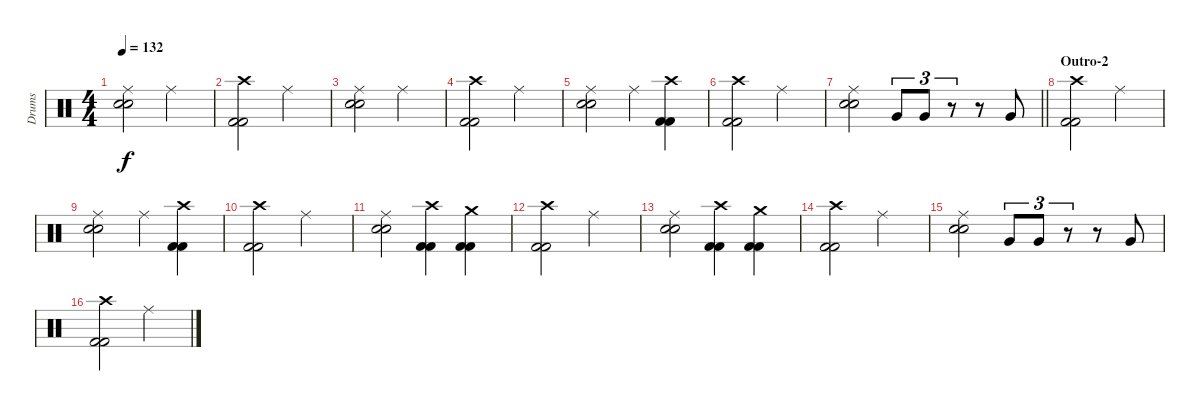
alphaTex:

\track ("Drums" "Drums") {instrument percussion}
\staff {score}
\articulation defaults
\ts (4 4)
\tempo 132
\clef neutral
\ks c
("Ride (middle)" "Snare (hit) 2" "Snare (hit) 2").2{dy f} "Ride (middle)".2 |
("Crash high (hit)" "Kick (hit) 2" "Kick (hit) 2").2 "Ride (middle)".2 |
("Ride (middle)" "Snare (hit) 2" "Snare (hit) 2").2 "Ride (middle)".2 |
("Crash high (hit)" "Kick (hit) 2" "Kick (hit) 2").2 "Ride (middle)".2 |
("Ride (middle)" "Snare (hit) 2" "Snare (hit) 2").2 "Ride (middle)".4 ("Crash high (hit)" "Kick (hit) 2" "Kick (hit) 2").4 |
("Crash high (hit)" "Kick (hit) 2" "Kick (hit) 2").2 "Ride (middle)".2 |
\barLineRight lightlight
("Ride (middle)" "Snare (hit) 2" "Snare (hit) 2").2 "Very Low Tom (hit)".8{tu (3 2)} "Very Low Tom (hit)".8{tu (3 2)} r.8{tu (3 2)} r.8 "Very Low Tom (hit)".8 |
\section ("" "Outro-2")
("Crash high (hit)" "Kick (hit) 2" "Kick (hit) 2").2 "Ride (middle)".2 |
("Ride (middle)" "Snare (hit) 2" "Snare (hit) 2").2 "Ride (middle)".4 ("Crash high (hit)" "Kick (hit) 2" "Kick (hit) 2").4 |
("Crash high (hit)" "Kick (hit) 2" "Kick (hit) 2").2 "Ride (middle)".2 |
("Ride (middle)" "Snare (hit) 2" "Snare (hit) 2").2 ("Crash high (hit)" "Kick (hit) 2" "Kick (hit) 2").4 ("Crash medium (hit)" "Kick (hit) 2" "Kick (hit) 2").4 |
("Crash high (hit)" "Kick (hit) 2" "Kick (hit) 2").2 "Ride (middle)".2 |
("Ride (middle)" "Snare (hit) 2" "Snare (hit) 2").2 ("Crash high (hit)" "Kick (hit) 2" "Kick (hit) 2").4 ("Crash medium (hit)" "Kick (hit) 2" "Kick (hit) 2").4 |
("Crash high (hit)" "Kick (hit) 2" "Kick (hit) 2").2 "Ride (middle)".2 |
("Ride (middle)" "Snare (hit) 2" "Snare (hit) 2").2 "Very Low Tom (hit)".8{tu (3 2)} "Very Low Tom (hit)".8{tu (3 2)} r.8{tu (3 2)} r.8 "Very Low Tom (hit)".8 |
("Crash high (hit)" "Kick (hit) 2" "Kick (hit) 2").2 "Ride (middle)".2
